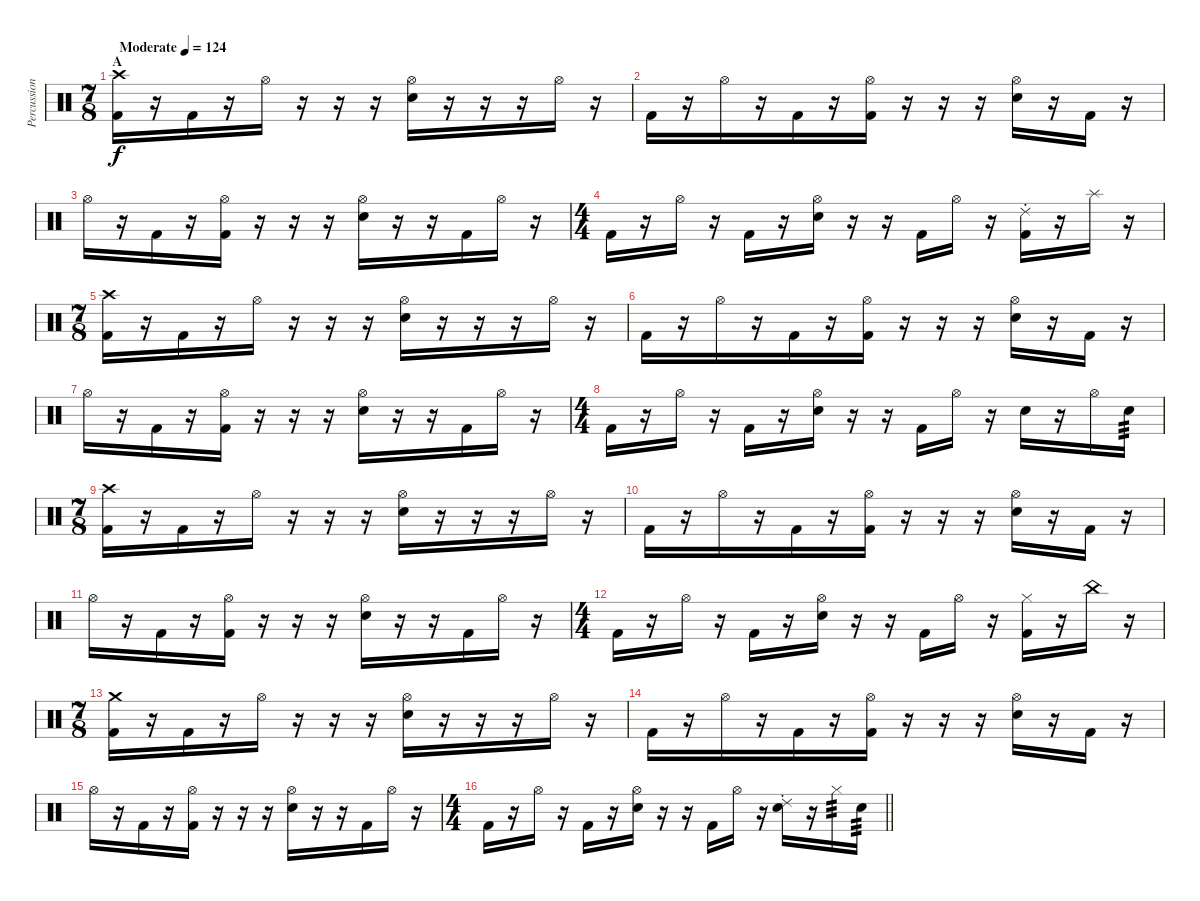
\track ("Percussion" "Percussion") {instrument percussion}
\staff {score}
\articulation defaults
\ts (7 8)
\section ("" "A")
\tempo (124 "Moderate")
\clef neutral
\ks c
("Crash high (hit)" "Kick (hit) 2").16{dy f} r.16 "Kick (hit) 2".16 r.16 "Hi-Hat (open)".16 r.16 r.16 r.16 ("Hi-Hat (open)" "Snare (hit) 2").16 r.16 r.16 r.16 "Hi-Hat (open)".16 r.16 |
"Kick (hit) 2".16 r.16 "Hi-Hat (open)".16 r.16 "Kick (hit) 2".16 r.16 ("Hi-Hat (open)" "Kick (hit) 2").16 r.16 r.16 r.16 ("Hi-Hat (open)" "Snare (hit) 2").16 r.16 "Kick (hit) 2".16 r.16 |
"Hi-Hat (open)".16 r.16 "Kick (hit) 2".16 r.16 ("Hi-Hat (open)" "Kick (hit) 2").16 r.16 r.16 r.16 ("Hi-Hat (open)" "Snare (hit) 2").16 r.16 r.16 "Kick (hit) 2".16 "Hi-Hat (open)".16 r.16 |
\ts (4 4)
"Kick (hit) 2".16 r.16 "Hi-Hat (open)".16 r.16 "Kick (hit) 2".16 r.16 ("Hi-Hat (open)" "Snare (hit) 2").16 r.16 r.16 "Kick (hit) 2".16 "Hi-Hat (open)".16 r.16 ("Ride (choke) 2" "Kick (hit) 2").16 r.16 "Splash (hit)".16 r.16 |
\ts (7 8)
("Crash high (hit)" "Kick (hit) 2").16 r.16 "Kick (hit) 2".16 r.16 "Hi-Hat (open)".16 r.16 r.16 r.16 ("Hi-Hat (open)" "Snare (hit) 2").16 r.16 r.16 r.16 "Hi-Hat (open)".16 r.16 |
"Kick (hit) 2".16 r.16 "Hi-Hat (open)".16 r.16 "Kick (hit) 2".16 r.16 ("Hi-Hat (open)" "Kick (hit) 2").16 r.16 r.16 r.16 ("Hi-Hat (open)" "Snare (hit) 2").16 r.16 "Kick (hit) 2".16 r.16 |
"Hi-Hat (open)".16 r.16 "Kick (hit) 2".16 r.16 ("Hi-Hat (open)" "Kick (hit) 2").16 r.16 r.16 r.16 ("Hi-Hat (open)" "Snare (hit) 2").16 r.16 r.16 "Kick (hit) 2".16 "Hi-Hat (open)".16 r.16 |
\ts (4 4)
"Kick (hit) 2".16 r.16 "Hi-Hat (open)".16 r.16 "Kick (hit) 2".16 r.16 ("Hi-Hat (open)" "Snare (hit) 2").16 r.16 r.16 "Kick (hit) 2".16 "Hi-Hat (open)".16 r.16 "Snare (hit) 2".16 r.16 "Hi-Hat (open)".16 "Snare (hit) 2".16{tp 3} |
\ts (7 8)
("Crash high (hit)" "Kick (hit) 2").16 r.16 "Kick (hit) 2".16 r.16 "Hi-Hat (open)".16 r.16 r.16 r.16 ("Hi-Hat (open)" "Snare (hit) 2").16 r.16 r.16 r.16 "Hi-Hat (open)".16 r.16 |
"Kick (hit) 2".16 r.16 "Hi-Hat (open)".16 r.16 "Kick (hit) 2".16 r.16 ("Hi-Hat (open)" "Kick (hit) 2").16 r.16 r.16 r.16 ("Hi-Hat (open)" "Snare (hit) 2").16 r.16 "Kick (hit) 2".16 r.16 |
"Hi-Hat (open)".16 r.16 "Kick (hit) 2".16 r.16 ("Hi-Hat (open)" "Kick (hit) 2").16 r.16 r.16 r.16 ("Hi-Hat (open)" "Snare (hit) 2").16 r.16 r.16 "Kick (hit) 2".16 "Hi-Hat (open)".16 r.16 |
\ts (4 4)
"Kick (hit) 2".16 r.16 "Hi-Hat (open)".16 r.16 "Kick (hit) 2".16 r.16 ("Hi-Hat (open)" "Snare (hit) 2").16 r.16 r.16 "Kick (hit) 2".16 "Hi-Hat (open)".16 r.16 ("Hi-Hat (closed)" "Kick (hit) 2").16 r.16 "China (hit)".16 r.16 |
\ts (7 8)
("Crash medium (hit)" "Kick (hit) 2").16 r.16 "Kick (hit) 2".16 r.16 "Hi-Hat (open)".16 r.16 r.16 r.16 ("Hi-Hat (open)" "Snare (hit) 2").16 r.16 r.16 r.16 "Hi-Hat (open)".16 r.16 |
"Kick (hit) 2".16 r.16 "Hi-Hat (open)".16 r.16 "Kick (hit) 2".16 r.16 ("Hi-Hat (open)" "Kick (hit) 2").16 r.16 r.16 r.16 ("Hi-Hat (open)" "Snare (hit) 2").16 r.16 "Kick (hit) 2".16 r.16 |
"Hi-Hat (open)".16 r.16 "Kick (hit) 2".16 r.16 ("Hi-Hat (open)" "Kick (hit) 2").16 r.16 r.16 r.16 ("Hi-Hat (open)" "Snare (hit) 2").16 r.16 r.16 "Kick (hit) 2".16 "Hi-Hat (open)".16 r.16 |
\ts (4 4)
\barLineRight lightlight "Kick (hit) 2".16
r.16 "Hi-Hat (open)".16 r.16 "Kick (hit) 2".16 r.16 ("Hi-Hat (open)" "Snare (hit) 2").16 r.16 r.16 "Kick (hit) 2".16 "Hi-Hat (open)".16 r.16 ("Ride (choke) 2" "Snare (hit) 2").16 r.16 "Hi-Hat (closed)".16{tp 3} "Snare (hit)".16{tp 3}
